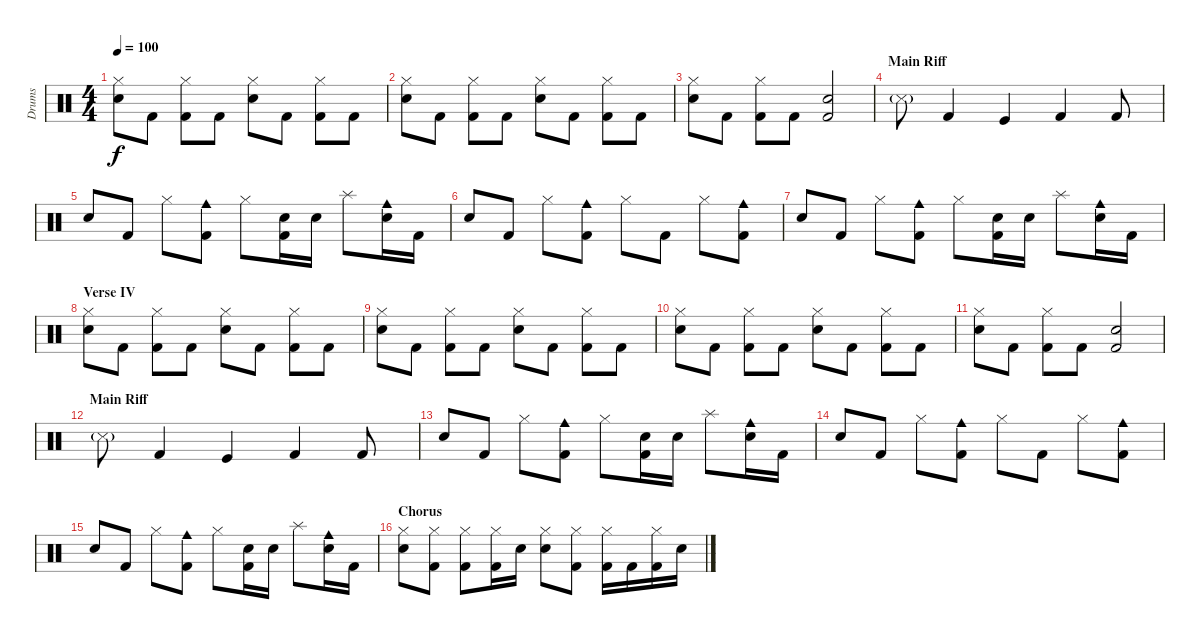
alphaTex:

\track ("Drums" "Drums") {instrument percussion}
\staff {score}
\articulation defaults
\ts (4 4)
\tempo 100
\clef neutral
\ks c
("Hi-Hat (closed)" "Snare (hit) 2").8{dy f} "Kick (hit) 2".8 ("Hi-Hat (closed)" "Kick (hit) 2").8 "Kick (hit) 2".8 ("Hi-Hat (closed)" "Snare (hit) 2").8 "Kick (hit) 2".8 ("Hi-Hat (closed)" "Kick (hit) 2").8 "Kick (hit) 2".8 |
("Hi-Hat (closed)" "Snare (hit) 2").8 "Kick (hit) 2".8 ("Hi-Hat (closed)" "Kick (hit) 2").8 "Kick (hit) 2".8 ("Hi-Hat (closed)" "Snare (hit) 2").8 "Kick (hit) 2".8 ("Hi-Hat (closed)" "Kick (hit) 2").8 "Kick (hit) 2".8 |
("Hi-Hat (closed)" "Snare (hit) 2").8 "Kick (hit) 2".8 ("Hi-Hat (closed)" "Kick (hit) 2").8 "Kick (hit) 2".8 ("Snare (hit) 2" "Kick (hit) 2").2 |
\section ("" "Main Riff")
"Snare (side stick) 3"{g}.8 "Kick (hit) 2".4 "Kick (hit)".4 "Kick (hit) 2".4 "Kick (hit) 2".8 |
"Snare (hit) 2".8 "Kick (hit) 2".8 "Hi-Hat (closed)".8 ("Cowbell medium (hit)" "Kick (hit) 2").8 "Hi-Hat (closed)".8 ("Snare (hit) 2" "Kick (hit) 2").16 "Snare (hit) 2".16 "Splash (hit)".8 ("Cowbell medium (hit)" "Snare (hit) 2").16 "Kick (hit) 2".16 |
"Snare (hit) 2".8 "Kick (hit) 2".8 "Hi-Hat (closed)".8 ("Cowbell medium (hit)" "Kick (hit) 2").8 "Hi-Hat (closed)".8 "Kick (hit) 2".8 "Hi-Hat (closed)".8 ("Cowbell medium (hit)" "Kick (hit) 2").8 |
"Snare (hit) 2".8 "Kick (hit) 2".8 "Hi-Hat (closed)".8 ("Cowbell medium (hit)" "Kick (hit) 2").8 "Hi-Hat (closed)".8 ("Snare (hit) 2" "Kick (hit) 2").16 "Snare (hit) 2".16 "Splash (hit)".8 ("Cowbell medium (hit)" "Snare (hit) 2").16 "Kick (hit) 2".16 |
\section ("" "Verse IV")
("Hi-Hat (closed)" "Snare (hit) 2").8 "Kick (hit) 2".8 ("Hi-Hat (closed)" "Kick (hit) 2").8 "Kick (hit) 2".8 ("Hi-Hat (closed)" "Snare (hit) 2").8 "Kick (hit) 2".8 ("Hi-Hat (closed)" "Kick (hit) 2").8 "Kick (hit) 2".8 |
("Hi-Hat (closed)" "Snare (hit) 2").8 "Kick (hit) 2".8 ("Hi-Hat (closed)" "Kick (hit) 2").8 "Kick (hit) 2".8 ("Hi-Hat (closed)" "Snare (hit) 2").8 "Kick (hit) 2".8 ("Hi-Hat (closed)" "Kick (hit) 2").8 "Kick (hit) 2".8 |
("Hi-Hat (closed)" "Snare (hit) 2").8 "Kick (hit) 2".8 ("Hi-Hat (closed)" "Kick (hit) 2").8 "Kick (hit) 2".8 ("Hi-Hat (closed)" "Snare (hit) 2").8 "Kick (hit) 2".8 ("Hi-Hat (closed)" "Kick (hit) 2").8 "Kick (hit) 2".8 |
("Hi-Hat (closed)" "Snare (hit) 2").8 "Kick (hit) 2".8 ("Hi-Hat (closed)" "Kick (hit) 2").8 "Kick (hit) 2".8 ("Snare (hit) 2" "Kick (hit) 2").2 |
\section ("" "Main Riff")
"Snare (side stick) 3"{g}.8 "Kick (hit) 2".4 "Kick (hit)".4 "Kick (hit) 2".4 "Kick (hit) 2".8 |
"Snare (hit) 2".8 "Kick (hit) 2".8 "Hi-Hat (closed)".8 ("Cowbell medium (hit)" "Kick (hit) 2").8 "Hi-Hat (closed)".8 ("Snare (hit) 2" "Kick (hit) 2").16 "Snare (hit) 2".16 "Splash (hit)".8 ("Cowbell medium (hit)" "Snare (hit) 2").16 "Kick (hit) 2".16 |
"Snare (hit) 2".8 "Kick (hit) 2".8 "Hi-Hat (closed)".8 ("Cowbell medium (hit)" "Kick (hit) 2").8 "Hi-Hat (closed)".8 "Kick (hit) 2".8 "Hi-Hat (closed)".8 ("Cowbell medium (hit)" "Kick (hit) 2").8 |
"Snare (hit) 2".8 "Kick (hit) 2".8 "Hi-Hat (closed)".8 ("Cowbell medium (hit)" "Kick (hit) 2").8 "Hi-Hat (closed)".8 ("Snare (hit) 2" "Kick (hit) 2").16 "Snare (hit) 2".16 "Splash (hit)".8 ("Cowbell medium (hit)" "Snare (hit) 2").16 "Kick (hit) 2".16 |
\section ("" "Chorus")
("Hi-Hat (closed)" "Snare (hit) 2").8 ("Hi-Hat (closed)" "Kick (hit) 2").8 ("Hi-Hat (closed)" "Kick (hit) 2").8 ("Hi-Hat (closed)" "Kick (hit) 2").16 "Snare (hit) 2".16 ("Hi-Hat (closed)" "Snare (hit) 2").8 ("Hi-Hat (closed)" "Kick (hit) 2").8 ("Hi-Hat (closed)" "Kick (hit) 2").16 "Kick (hit) 2".16 ("Hi-Hat (closed)" "Kick (hit) 2").16 "Snare (hit) 2".16
